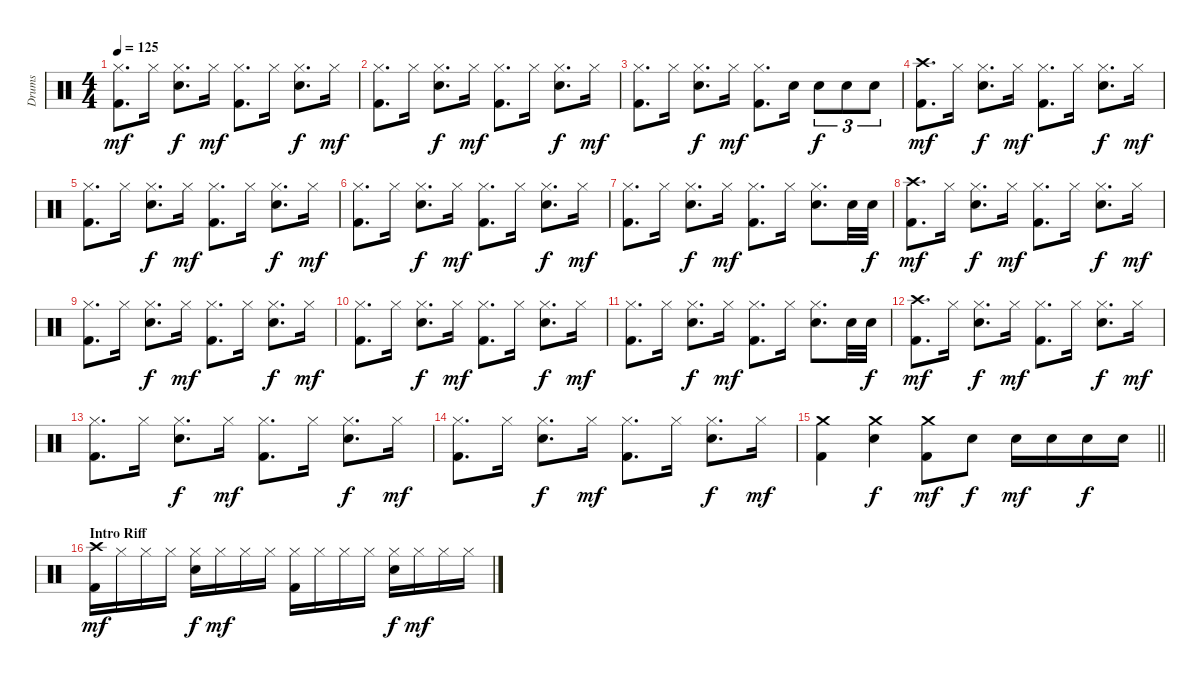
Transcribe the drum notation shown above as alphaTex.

\track ("Drums" "Drums") {instrument percussion}
\staff {score}
\articulation defaults
\ts (4 4)
\tempo 125
\clef neutral
\ks c
("Hi-Hat (closed)" "Kick (hit) 2").8{d dy mf} "Hi-Hat (closed)".16 ("Hi-Hat (closed)" "Snare (hit) 2").8{d dy f} "Hi-Hat (closed)".16{dy mf} ("Hi-Hat (closed)" "Kick (hit) 2").8{d} "Hi-Hat (closed)".16 ("Hi-Hat (closed)" "Snare (hit) 2").8{d dy f} "Hi-Hat (closed)".16{dy mf} |
("Hi-Hat (closed)" "Kick (hit) 2").8{d} "Hi-Hat (closed)".16 ("Hi-Hat (closed)" "Snare (hit) 2").8{d dy f} "Hi-Hat (closed)".16{dy mf} ("Hi-Hat (closed)" "Kick (hit) 2").8{d} "Hi-Hat (closed)".16 ("Hi-Hat (closed)" "Snare (hit) 2").8{d dy f} "Hi-Hat (closed)".16{dy mf} |
("Hi-Hat (closed)" "Kick (hit) 2").8{d} "Hi-Hat (closed)".16 ("Hi-Hat (closed)" "Snare (hit) 2").8{d dy f} "Hi-Hat (closed)".16{dy mf} ("Hi-Hat (closed)" "Kick (hit) 2").8{d} "Snare (hit) 2".16 "Snare (hit) 2".8{tu (3 2) dy f} "Snare (hit) 2".8{tu (3 2)} "Snare (hit) 2".8{tu (3 2)} |
("Crash high (hit)" "Kick (hit) 2").8{d dy mf} "Hi-Hat (closed)".16 ("Hi-Hat (closed)" "Snare (hit) 2").8{d dy f} "Hi-Hat (closed)".16{dy mf} ("Hi-Hat (closed)" "Kick (hit) 2").8{d} "Hi-Hat (closed)".16 ("Hi-Hat (closed)" "Snare (hit) 2").8{d dy f} "Hi-Hat (closed)".16{dy mf} |
("Hi-Hat (closed)" "Kick (hit) 2").8{d} "Hi-Hat (closed)".16 ("Hi-Hat (closed)" "Snare (hit) 2").8{d dy f} "Hi-Hat (closed)".16{dy mf} ("Hi-Hat (closed)" "Kick (hit) 2").8{d} "Hi-Hat (closed)".16 ("Hi-Hat (closed)" "Snare (hit) 2").8{d dy f} "Hi-Hat (closed)".16{dy mf} |
("Hi-Hat (closed)" "Kick (hit) 2").8{d} "Hi-Hat (closed)".16 ("Hi-Hat (closed)" "Snare (hit) 2").8{d dy f} "Hi-Hat (closed)".16{dy mf} ("Hi-Hat (closed)" "Kick (hit) 2").8{d} "Hi-Hat (closed)".16 ("Hi-Hat (closed)" "Snare (hit) 2").8{d dy f} "Hi-Hat (closed)".16{dy mf} |
("Hi-Hat (closed)" "Kick (hit) 2").8{d} "Hi-Hat (closed)".16 ("Hi-Hat (closed)" "Snare (hit) 2").8{d dy f} "Hi-Hat (closed)".16{dy mf} ("Hi-Hat (closed)" "Kick (hit) 2").8{d} "Hi-Hat (closed)".16 ("Hi-Hat (closed)" "Snare (hit) 2").8{d} "Snare (hit) 2".32 "Snare (hit) 2".32{dy f} |
("Crash high (hit)" "Kick (hit) 2").8{d dy mf} "Hi-Hat (closed)".16 ("Hi-Hat (closed)" "Snare (hit) 2").8{d dy f} "Hi-Hat (closed)".16{dy mf} ("Hi-Hat (closed)" "Kick (hit) 2").8{d} "Hi-Hat (closed)".16 ("Hi-Hat (closed)" "Snare (hit) 2").8{d dy f} "Hi-Hat (closed)".16{dy mf} |
("Hi-Hat (closed)" "Kick (hit) 2").8{d} "Hi-Hat (closed)".16 ("Hi-Hat (closed)" "Snare (hit) 2").8{d dy f} "Hi-Hat (closed)".16{dy mf} ("Hi-Hat (closed)" "Kick (hit) 2").8{d} "Hi-Hat (closed)".16 ("Hi-Hat (closed)" "Snare (hit) 2").8{d dy f} "Hi-Hat (closed)".16{dy mf} |
("Hi-Hat (closed)" "Kick (hit) 2").8{d} "Hi-Hat (closed)".16 ("Hi-Hat (closed)" "Snare (hit) 2").8{d dy f} "Hi-Hat (closed)".16{dy mf} ("Hi-Hat (closed)" "Kick (hit) 2").8{d} "Hi-Hat (closed)".16 ("Hi-Hat (closed)" "Snare (hit) 2").8{d dy f} "Hi-Hat (closed)".16{dy mf} |
("Hi-Hat (closed)" "Kick (hit) 2").8{d} "Hi-Hat (closed)".16 ("Hi-Hat (closed)" "Snare (hit) 2").8{d dy f} "Hi-Hat (closed)".16{dy mf} ("Hi-Hat (closed)" "Kick (hit) 2").8{d} "Hi-Hat (closed)".16 ("Hi-Hat (closed)" "Snare (hit) 2").8{d} "Snare (hit) 2".32 "Snare (hit) 2".32{dy f} |
("Crash high (hit)" "Kick (hit) 2").8{d dy mf} "Hi-Hat (closed)".16 ("Hi-Hat (closed)" "Snare (hit) 2").8{d dy f} "Hi-Hat (closed)".16{dy mf} ("Hi-Hat (closed)" "Kick (hit) 2").8{d} "Hi-Hat (closed)".16 ("Hi-Hat (closed)" "Snare (hit) 2").8{d dy f} "Hi-Hat (closed)".16{dy mf} |
("Hi-Hat (closed)" "Kick (hit) 2").8{d} "Hi-Hat (closed)".16 ("Hi-Hat (closed)" "Snare (hit) 2").8{d dy f} "Hi-Hat (closed)".16{dy mf} ("Hi-Hat (closed)" "Kick (hit) 2").8{d} "Hi-Hat (closed)".16 ("Hi-Hat (closed)" "Snare (hit) 2").8{d dy f} "Hi-Hat (closed)".16{dy mf} |
("Hi-Hat (closed)" "Kick (hit) 2").8{d} "Hi-Hat (closed)".16 ("Hi-Hat (closed)" "Snare (hit) 2").8{d dy f} "Hi-Hat (closed)".16{dy mf} ("Hi-Hat (closed)" "Kick (hit) 2").8{d} "Hi-Hat (closed)".16 ("Hi-Hat (closed)" "Snare (hit) 2").8{d dy f} "Hi-Hat (closed)".16{dy mf} |
\barLineRight lightlight
("Crash medium (hit)" "Kick (hit) 2").4 ("Crash medium (hit)" "Snare (hit) 2").4{dy f} ("Crash medium (hit)" "Kick (hit) 2").8{dy mf} "Snare (hit) 2".8{dy f} "Snare (hit) 2".16{dy mf} "Snare (hit) 2".16 "Snare (hit) 2".16{dy f} "Snare (hit) 2".16 |
\section ("" "Intro Riff")
("Crash high (hit)" "Kick (hit) 2").16{dy mf} "Hi-Hat (closed)".16 "Hi-Hat (closed)".16 "Hi-Hat (closed)".16 ("Hi-Hat (closed)" "Snare (hit) 2").16{dy f} "Hi-Hat (closed)".16{dy mf} "Hi-Hat (closed)".16 "Hi-Hat (closed)".16 ("Hi-Hat (closed)" "Kick (hit) 2").16 "Hi-Hat (closed)".16 "Hi-Hat (closed)".16 "Hi-Hat (closed)".16 ("Hi-Hat (closed)" "Snare (hit) 2").16{dy f} "Hi-Hat (closed)".16{dy mf} "Hi-Hat (closed)".16 "Hi-Hat (closed)".16
